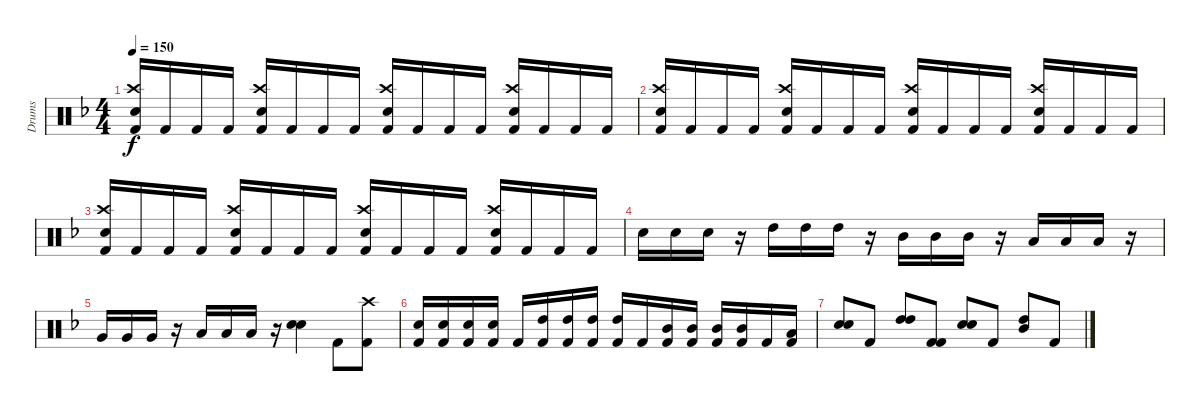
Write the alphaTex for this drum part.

\track ("Drums" "Drums") {instrument percussion}
\staff {score}
\articulation defaults
\ts (4 4)
\tempo 150
\clef neutral
\ks f
("Kick (hit) 2" "Crash high (hit)" "Snare (hit) 2").16{dy f} "Kick (hit) 2".16 "Kick (hit) 2".16 "Kick (hit) 2".16 ("Kick (hit) 2" "Crash high (hit)" "Snare (hit) 2").16 "Kick (hit) 2".16 "Kick (hit) 2".16 "Kick (hit) 2".16 ("Kick (hit) 2" "Crash high (hit)" "Snare (hit) 2").16 "Kick (hit) 2".16 "Kick (hit) 2".16 "Kick (hit) 2".16 ("Kick (hit) 2" "Crash high (hit)" "Snare (hit) 2").16 "Kick (hit) 2".16 "Kick (hit) 2".16 "Kick (hit) 2".16 |
("Kick (hit) 2" "Crash high (hit)" "Snare (hit) 2").16 "Kick (hit) 2".16 "Kick (hit) 2".16 "Kick (hit) 2".16 ("Kick (hit) 2" "Crash high (hit)" "Snare (hit) 2").16 "Kick (hit) 2".16 "Kick (hit) 2".16 "Kick (hit) 2".16 ("Kick (hit) 2" "Crash high (hit)" "Snare (hit) 2").16 "Kick (hit) 2".16 "Kick (hit) 2".16 "Kick (hit) 2".16 ("Kick (hit) 2" "Crash high (hit)" "Snare (hit) 2").16 "Kick (hit) 2".16 "Kick (hit) 2".16 "Kick (hit) 2".16 |
("Kick (hit) 2" "Crash high (hit)" "Snare (hit) 2").16 "Kick (hit) 2".16 "Kick (hit) 2".16 "Kick (hit) 2".16 ("Kick (hit) 2" "Crash high (hit)" "Snare (hit) 2").16 "Kick (hit) 2".16 "Kick (hit) 2".16 "Kick (hit) 2".16 ("Kick (hit) 2" "Crash high (hit)" "Snare (hit) 2").16 "Kick (hit) 2".16 "Kick (hit) 2".16 "Kick (hit) 2".16 ("Kick (hit) 2" "Crash high (hit)" "Snare (hit) 2").16 "Kick (hit) 2".16 "Kick (hit) 2".16 "Kick (hit) 2".16 |
"Snare (hit) 2".16 "Snare (hit) 2".16 "Snare (hit) 2".16 r.16 "High Tom (hit)".16 "High Tom (hit)".16 "High Tom (hit)".16 r.16 "Mid Tom (hit)".16 "Mid Tom (hit)".16 "Mid Tom (hit)".16 r.16 "Low Tom (hit)".16 "Low Tom (hit)".16 "Low Tom (hit)".16 r.16 |
"Very Low Tom (hit)".16 "Very Low Tom (hit)".16 "Very Low Tom (hit)".16 r.16 "Low Floor Tom (hit)".16 "Low Floor Tom (hit)".16 "Low Floor Tom (hit)".16 r.16 ("Snare (hit) 2" "Snare (hit) 2").4{bd 480} "Kick (hit) 2".8 ("Kick (hit) 2" "Crash high (hit)").8 |
("Kick (hit) 2" "Snare (hit) 2").16 ("Kick (hit) 2" "Snare (hit) 2").16 ("Kick (hit) 2" "Snare (hit) 2").16 ("Kick (hit) 2" "Snare (hit) 2").16 "Kick (hit) 2".16 ("Kick (hit) 2" "High Tom (hit)").16 ("Kick (hit) 2" "High Tom (hit)").16 ("Kick (hit) 2" "High Tom (hit)").16 ("Kick (hit) 2" "High Tom (hit)").16 "Kick (hit) 2".16 ("Kick (hit) 2" "Mid Tom (hit)").16 ("Kick (hit) 2" "Mid Tom (hit)").16 ("Kick (hit) 2" "Mid Tom (hit)").16 ("Kick (hit) 2" "Mid Tom (hit)").16 "Kick (hit) 2".16 ("Kick (hit) 2" "Low Tom (hit)").16 |
("Electric Snare (hit)" "Electric Snare (hit)").8{bd 480} "Kick (hit) 2".8 ("High Tom (hit)" "High Tom (hit)").8{bd 480} ("Kick (hit) 2" "Kick (hit) 2").8 ("Snare (hit) 2" "Electric Snare (hit)").8{bd 120} "Kick (hit) 2".8 ("High Tom (hit)" "Mid Tom (hit)").8{bd 480} "Kick (hit) 2".8
